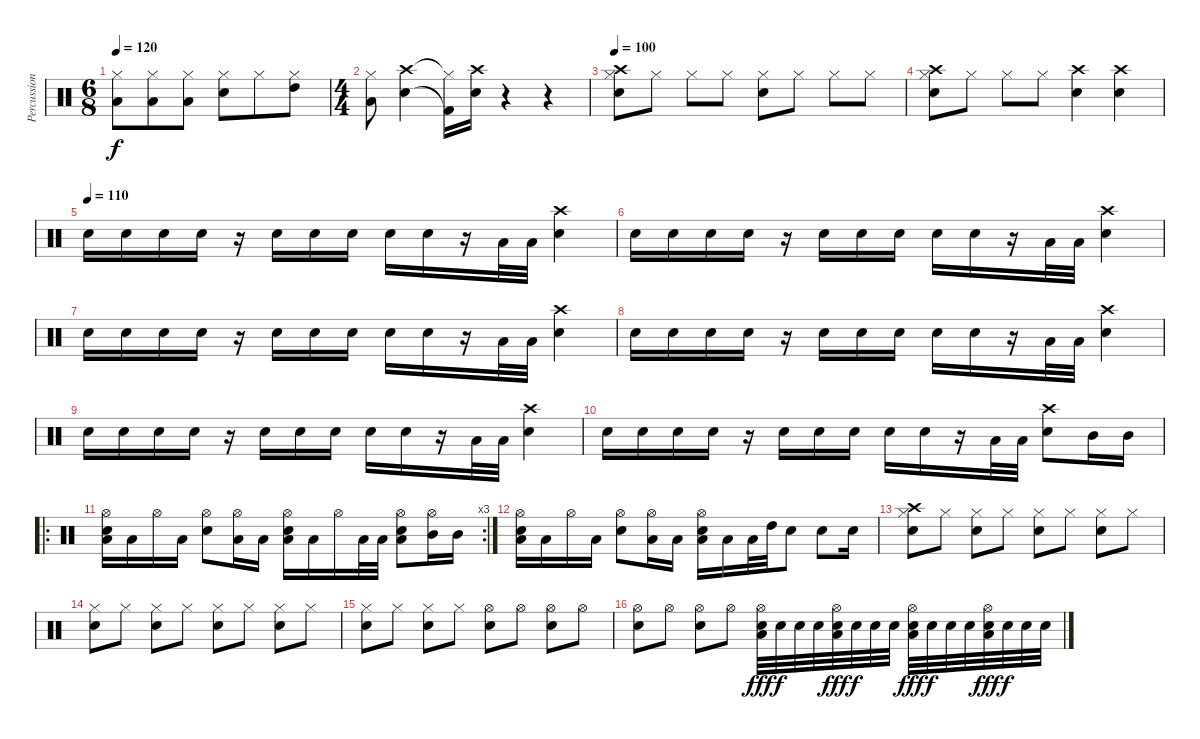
\track ("Percussions" "Percussion") {instrument percussion}
\staff {score}
\articulation defaults
\ts (6 8)
\tempo 120
\clef neutral
\ks c
("Hi-Hat (closed)" "Low Floor Tom (hit)").8{dy f} ("Hi-Hat (closed)" "Low Floor Tom (hit)").8 ("Hi-Hat (closed)" "Low Floor Tom (hit)").8 ("Hi-Hat (closed)" "Snare (hit) 2").8 "Hi-Hat (closed)".8 ("Hi-Hat (closed)" "High Tom (hit)").8 |
\ts (4 4)
("Hi-Hat (closed)" "Low Floor Tom (hit)").8 ("Crash high (hit)" "Snare (hit) 2").4 ("Hi-Hat (closed)"{t} "Kick (hit) 2"{t}).16 ("Crash high (hit)" "Snare (hit) 2").16 r.4 r.4 |
\tempo 100
("Crash high (hit)" "Hi-Hat (closed)" "Snare (hit) 2").8 "Hi-Hat (closed)".8 "Hi-Hat (closed)".8 "Hi-Hat (closed)".8 ("Hi-Hat (closed)" "Snare (hit) 2").8 "Hi-Hat (closed)".8 "Hi-Hat (closed)".8 "Hi-Hat (closed)".8 |
("Crash high (hit)" "Hi-Hat (closed)" "Snare (hit) 2").8 "Hi-Hat (closed)".8 "Hi-Hat (closed)".8 "Hi-Hat (closed)".8 ("Crash high (hit)" "Snare (hit) 2").4 ("Crash high (hit)" "Snare (hit) 2").4 |
\tempo (110)
"Snare (hit) 2".16 "Snare (hit) 2".16 "Snare (hit) 2".16 "Snare (hit) 2".16 r.16 "Snare (hit) 2".16 "Snare (hit) 2".16 "Snare (hit) 2".16 "Snare (hit) 2".16 "Snare (hit) 2".16 r.16 "Low Floor Tom (hit)".32 "Low Floor Tom (hit)".32 ("Crash high (hit)" "Snare (hit) 2").4 |
"Snare (hit) 2".16 "Snare (hit) 2".16 "Snare (hit) 2".16 "Snare (hit) 2".16 r.16 "Snare (hit) 2".16 "Snare (hit) 2".16 "Snare (hit) 2".16 "Snare (hit) 2".16 "Snare (hit) 2".16 r.16 "Low Floor Tom (hit)".32 "Low Floor Tom (hit)".32 ("Crash high (hit)" "Snare (hit) 2").4 |
"Snare (hit) 2".16 "Snare (hit) 2".16 "Snare (hit) 2".16 "Snare (hit) 2".16 r.16 "Snare (hit) 2".16 "Snare (hit) 2".16 "Snare (hit) 2".16 "Snare (hit) 2".16 "Snare (hit) 2".16 r.16 "Low Floor Tom (hit)".32 "Low Floor Tom (hit)".32 ("Crash high (hit)" "Snare (hit) 2").4 |
"Snare (hit) 2".16 "Snare (hit) 2".16 "Snare (hit) 2".16 "Snare (hit) 2".16 r.16 "Snare (hit) 2".16 "Snare (hit) 2".16 "Snare (hit) 2".16 "Snare (hit) 2".16 "Snare (hit) 2".16 r.16 "Low Floor Tom (hit)".32 "Low Floor Tom (hit)".32 ("Crash high (hit)" "Snare (hit) 2").4 |
"Snare (hit) 2".16 "Snare (hit) 2".16 "Snare (hit) 2".16 "Snare (hit) 2".16 r.16 "Snare (hit) 2".16 "Snare (hit) 2".16 "Snare (hit) 2".16 "Snare (hit) 2".16 "Snare (hit) 2".16 r.16 "Low Floor Tom (hit)".32 "Low Floor Tom (hit)".32 ("Crash high (hit)" "Snare (hit) 2").4 |
"Snare (hit) 2".16 "Snare (hit) 2".16 "Snare (hit) 2".16 "Snare (hit) 2".16 r.16 "Snare (hit) 2".16 "Snare (hit) 2".16 "Snare (hit) 2".16 "Snare (hit) 2".16 "Snare (hit) 2".16 r.16 "Low Floor Tom (hit)".32 "Low Floor Tom (hit)".32 ("Crash high (hit)" "Snare (hit) 2").8 "Mid Tom (hit)".16 "Mid Tom (hit)".16 |
\ro
\rc 3
("Hi-Hat (open)" "Snare (hit) 2" "Low Floor Tom (hit)").16 "Low Floor Tom (hit)".16 "Hi-Hat (open)".16 "Low Floor Tom (hit)".16 ("Hi-Hat (open)" "Snare (hit) 2").8 ("Hi-Hat (open)" "Low Floor Tom (hit)").16 "Low Floor Tom (hit)".16 ("Hi-Hat (open)" "Snare (hit) 2" "Low Floor Tom (hit)").16 "Low Floor Tom (hit)".16 "Hi-Hat (open)".16 "Low Floor Tom (hit)".32 "Low Floor Tom (hit)".32 ("Hi-Hat (open)" "Snare (hit) 2" "Low Floor Tom (hit)").8 ("Hi-Hat (open)" "Mid Tom (hit)").16 "Mid Tom (hit)".16 |
("Hi-Hat (open)" "Snare (hit) 2" "Low Floor Tom (hit)").16 "Low Floor Tom (hit)".16 "Hi-Hat (open)".16 "Low Floor Tom (hit)".16 ("Hi-Hat (open)" "Snare (hit) 2").8 ("Hi-Hat (open)" "Low Floor Tom (hit)").16 "Low Floor Tom (hit)".16 ("Hi-Hat (open)" "Snare (hit) 2" "Low Floor Tom (hit)").16 "Low Floor Tom (hit)".16 "Low Floor Tom (hit)".32 "High Tom (hit)".32 "Snare (hit) 2".8 "Snare (hit) 2".8 "Snare (hit) 2".16 |
("Crash high (hit)" "Snare (hit) 2" "Hi-Hat (closed)").8 "Hi-Hat (closed)".8 ("Snare (hit) 2" "Hi-Hat (closed)").8 "Hi-Hat (closed)".8 ("Snare (hit) 2" "Hi-Hat (closed)").8 "Hi-Hat (closed)".8 ("Snare (hit) 2" "Hi-Hat (closed)").8 "Hi-Hat (closed)".8 |
("Snare (hit) 2" "Hi-Hat (closed)").8 "Hi-Hat (closed)".8 ("Snare (hit) 2" "Hi-Hat (closed)").8 "Hi-Hat (closed)".8 ("Snare (hit) 2" "Hi-Hat (closed)").8 "Hi-Hat (closed)".8 ("Snare (hit) 2" "Hi-Hat (closed)").8 "Hi-Hat (closed)".8 |
("Snare (hit) 2" "Hi-Hat (closed)").8 "Hi-Hat (closed)".8 ("Snare (hit) 2" "Hi-Hat (closed)").8 "Hi-Hat (closed)".8 ("Snare (hit) 2" "Hi-Hat (open)").8 "Hi-Hat (open)".8 ("Snare (hit) 2" "Hi-Hat (open)").8 "Hi-Hat (open)".8 |
("Snare (hit) 2" "Hi-Hat (open)").8 "Hi-Hat (open)".8 ("Snare (hit) 2" "Hi-Hat (open)").8 "Hi-Hat (open)".8 ("Low Floor Tom (hit)" "Snare (hit) 2" "Hi-Hat (open)").32{dy fff} "Snare (hit) 2".32{dy f} "Snare (hit) 2".32 "Snare (hit) 2".32 ("Low Floor Tom (hit)" "Snare (hit) 2" "Hi-Hat (open)").32{dy fff} "Snare (hit) 2".32{dy f} "Snare (hit) 2".32 "Snare (hit) 2".32 ("Low Floor Tom (hit)" "Snare (hit) 2" "Hi-Hat (open)").32{dy fff} "Snare (hit) 2".32{dy f} "Snare (hit) 2".32 "Snare (hit) 2".32 ("Low Floor Tom (hit)" "Snare (hit) 2" "Hi-Hat (open)").32{dy fff} "Snare (hit) 2".32{dy f} "Snare (hit) 2".32 "Snare (hit) 2".32
